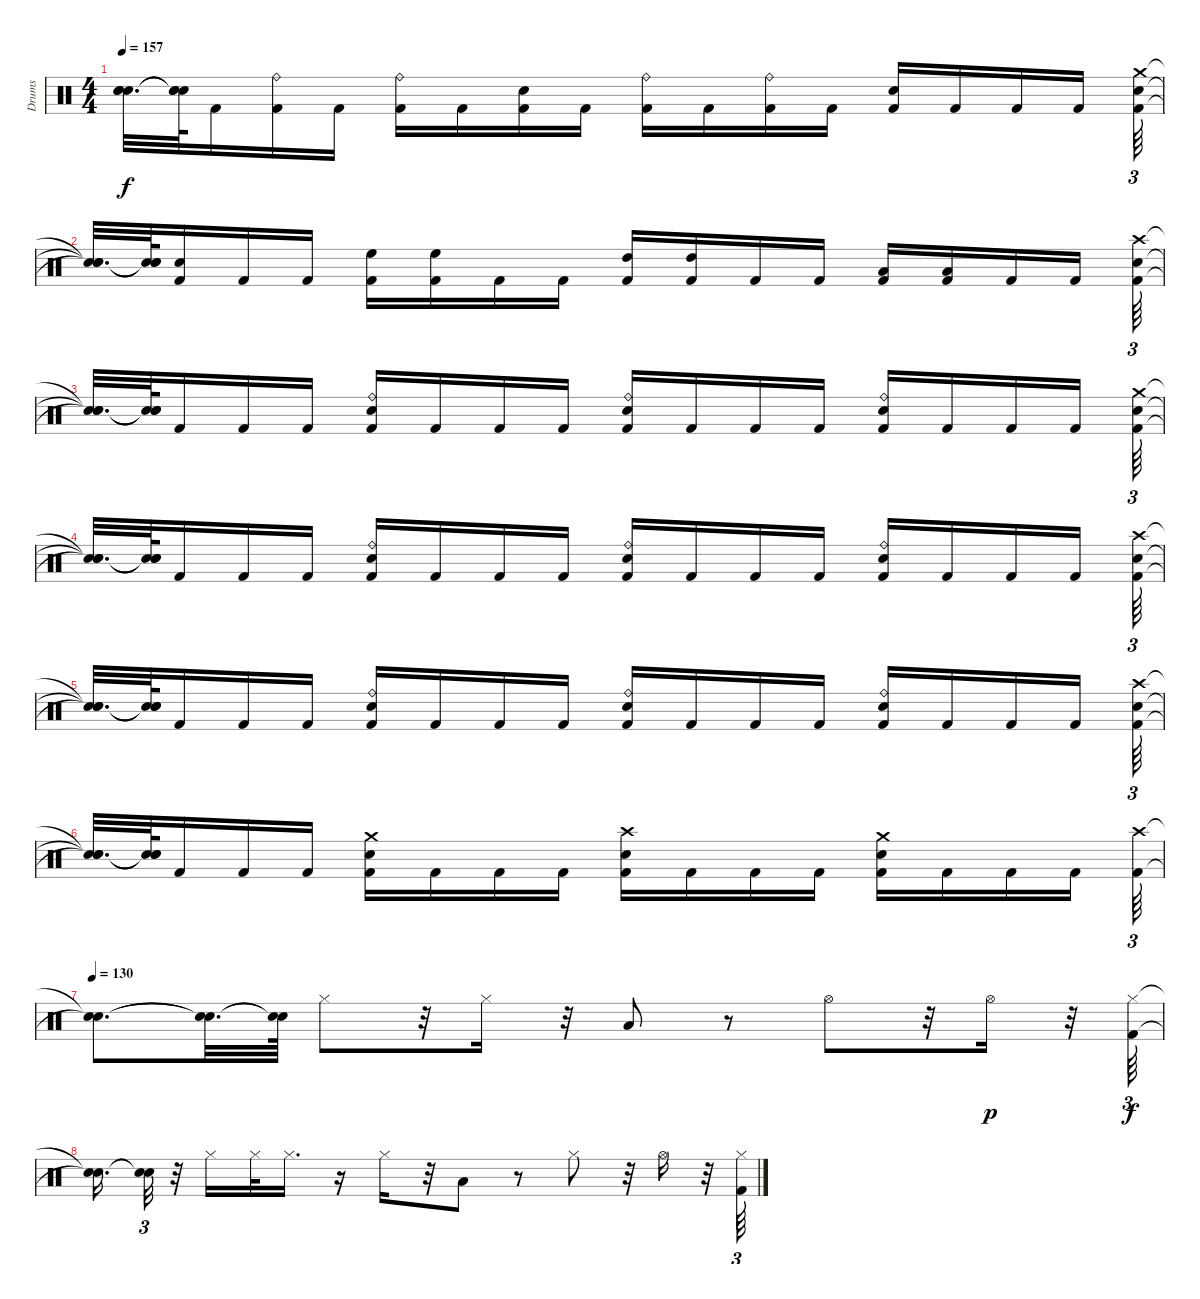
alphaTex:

\track ("Drums" "Drums") {instrument percussion}
\staff {score}
\articulation defaults
\ts (4 4)
\tempo 157
\clef neutral
\ks c
("Snare (hit)"{t} "Snare (hit)"{t} "Snare (hit)"{t}).32{d dy f} ("Snare (hit)"{t} "Snare (hit)"{t} "Snare (hit)"{t}).64 "Kick (hit) 2".16 ("Kick (hit) 2" "Ride (bell)").16 "Kick (hit) 2".16 ("Kick (hit) 2" "Ride (bell)").16 "Kick (hit) 2".16 ("Kick (hit) 2" "Electric Snare (hit)").16 "Kick (hit) 2".16 ("Kick (hit) 2" "Ride (bell)").16 "Kick (hit) 2".16 ("Kick (hit) 2" "Ride (bell)").16 "Kick (hit) 2".16 ("Kick (hit) 2" "Electric Snare (hit)").16 "Kick (hit) 2".16 "Kick (hit) 2".16 "Kick (hit) 2".16 ("Kick (hit) 2" "Crash medium (hit)" "Electric Snare (hit)").64{tu (3 2)} |
("Snare (hit)"{t} "Snare (hit)"{t} "Snare (hit)"{t}).32{d} ("Snare (hit)"{t} "Snare (hit)"{t} "Snare (hit)"{t}).64 ("Kick (hit) 2" "Electric Snare (hit)").16 "Kick (hit) 2".16 "Kick (hit) 2".16 ("Kick (hit) 2" "High Floor Tom (hit)").16 ("Kick (hit) 2" "High Floor Tom (hit)").16 "Kick (hit) 2".16 "Kick (hit) 2".16 ("Kick (hit) 2" "High Tom (hit)").16 ("Kick (hit) 2" "High Tom (hit)").16 "Kick (hit) 2".16 "Kick (hit) 2".16 ("Kick (hit) 2" "Low Tom (hit)").16 ("Kick (hit) 2" "Low Tom (hit)").16 "Kick (hit) 2".16 "Kick (hit) 2".16 ("Kick (hit) 2" "Crash high (hit)" "Electric Snare (hit)").64{tu (3 2)} |
("Snare (hit)"{t} "Snare (hit)"{t} "Snare (hit)"{t}).32{d} ("Snare (hit)"{t} "Snare (hit)"{t} "Snare (hit)"{t}).64 "Kick (hit) 2".16 "Kick (hit) 2".16 "Kick (hit) 2".16 ("Kick (hit) 2" "Electric Snare (hit)" "Ride (bell)").16 "Kick (hit) 2".16 "Kick (hit) 2".16 "Kick (hit) 2".16 ("Kick (hit) 2" "Electric Snare (hit)" "Ride (bell)").16 "Kick (hit) 2".16 "Kick (hit) 2".16 "Kick (hit) 2".16 ("Kick (hit) 2" "Electric Snare (hit)" "Ride (bell)").16 "Kick (hit) 2".16 "Kick (hit) 2".16 "Kick (hit) 2".16 ("Kick (hit) 2" "Electric Snare (hit)" "Crash medium (hit)").64{tu (3 2)} |
("Snare (hit)"{t} "Snare (hit)"{t} "Snare (hit)"{t}).32{d} ("Snare (hit)"{t} "Snare (hit)"{t} "Snare (hit)"{t}).64 "Kick (hit) 2".16 "Kick (hit) 2".16 "Kick (hit) 2".16 ("Kick (hit) 2" "Electric Snare (hit)" "Ride (bell)").16 "Kick (hit) 2".16 "Kick (hit) 2".16 "Kick (hit) 2".16 ("Kick (hit) 2" "Electric Snare (hit)" "Ride (bell)").16 "Kick (hit) 2".16 "Kick (hit) 2".16 "Kick (hit) 2".16 ("Kick (hit) 2" "Electric Snare (hit)" "Ride (bell)").16 "Kick (hit) 2".16 "Kick (hit) 2".16 "Kick (hit) 2".16 ("Kick (hit) 2" "Electric Snare (hit)" "Crash high (hit)").64{tu (3 2)} |
("Snare (hit)"{t} "Snare (hit)"{t} "Snare (hit)"{t}).32{d} ("Snare (hit)"{t} "Snare (hit)"{t} "Snare (hit)"{t}).64 "Kick (hit) 2".16 "Kick (hit) 2".16 "Kick (hit) 2".16 ("Kick (hit) 2" "Electric Snare (hit)" "Ride (bell)").16 "Kick (hit) 2".16 "Kick (hit) 2".16 "Kick (hit) 2".16 ("Kick (hit) 2" "Electric Snare (hit)" "Ride (bell)").16 "Kick (hit) 2".16 "Kick (hit) 2".16 "Kick (hit) 2".16 ("Kick (hit) 2" "Electric Snare (hit)" "Ride (bell)").16 "Kick (hit) 2".16 "Kick (hit) 2".16 "Kick (hit) 2".16 ("Kick (hit) 2" "Electric Snare (hit)" "Crash high (hit)").64{tu (3 2)} |
("Snare (hit)"{t} "Snare (hit)"{t} "Snare (hit)"{t}).32{d} ("Snare (hit)"{t} "Snare (hit)"{t} "Snare (hit)"{t}).64 "Kick (hit) 2".16 "Kick (hit) 2".16 "Kick (hit) 2".16 ("Kick (hit) 2" "Electric Snare (hit)" "Crash medium (hit)").16 "Kick (hit) 2".16 "Kick (hit) 2".16 "Kick (hit) 2".16 ("Kick (hit) 2" "Electric Snare (hit)" "Crash high (hit)").16 "Kick (hit) 2".16 "Kick (hit) 2".16 "Kick (hit) 2".16 ("Kick (hit) 2" "Electric Snare (hit)" "Crash medium (hit)").16 "Kick (hit) 2".16 "Kick (hit) 2".16 "Kick (hit) 2".16 ("Kick (hit) 2" "Crash high (hit)").64{tu (3 2)} |
\tempo 130
("Snare (hit)"{t} "Snare (hit)"{t}).8{d} ("Snare (hit)"{t} "Snare (hit)"{t}).32{d} ("Snare (hit)"{t} "Snare (hit)"{t}).64 "Hi-Hat (closed)".8 r.32 "Hi-Hat (closed)".16 r.32 "Low Tom (hit)".8 r.8 "Hi-Hat (open)".8 r.32 "Hi-Hat (open)".16{dy p} r.32 ("Kick (hit) 2" "Hi-Hat (closed)").64{tu (3 2) dy f} |
("Snare (hit)"{t} "Snare (hit)"{t}).16{d} ("Snare (hit)"{t} "Snare (hit)"{t}).32{tu (3 2)} r.32 "Hi-Hat (closed)".16 "Hi-Hat (closed)".32 "Hi-Hat (closed)".16{d} r.16 "Hi-Hat (closed)".16 r.32 "Low Tom (hit)".8 r.8 "Hi-Hat (closed)".8 r.32 "Hi-Hat (open)".16 r.32 ("Kick (hit) 2" "Hi-Hat (closed)").64{tu (3 2)}
